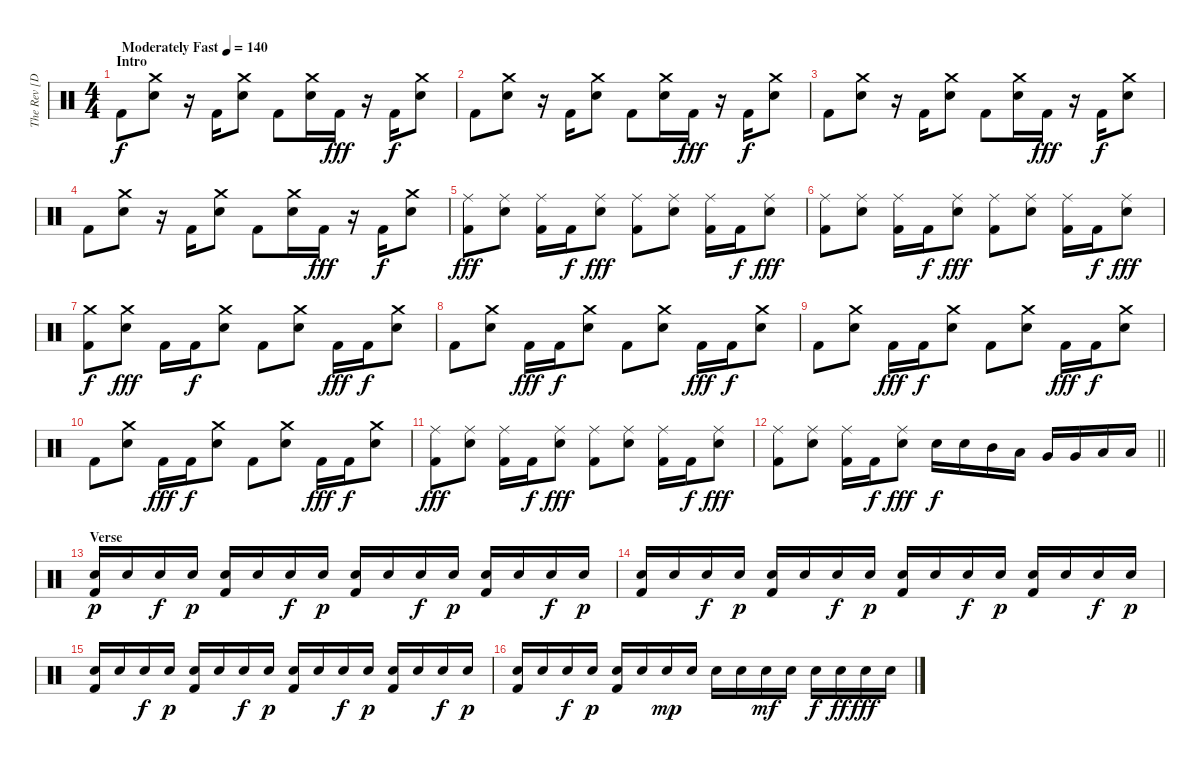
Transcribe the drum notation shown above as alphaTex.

\track ("The Rev [Drum]" "The Rev [D") {instrument percussion}
\staff {score}
\articulation defaults
\ts (4 4)
\section ("" "Intro")
\tempo (140 "Moderately Fast")
\clef neutral
\ks c "Kick (hit) 2".8{dy f}
("Crash medium (hit)" "Snare (hit) 2").8 r.16 "Kick (hit) 2".16 ("Crash medium (hit)" "Snare (hit) 2").8 "Kick (hit) 2".8 ("Crash medium (hit)" "Snare (hit) 2").16 "Kick (hit) 2".16{dy fff} r.16 "Kick (hit) 2".16{dy f} ("Crash medium (hit)" "Snare (hit) 2").8 |
"Kick (hit) 2".8 ("Crash medium (hit)" "Snare (hit) 2").8 r.16 "Kick (hit) 2".16 ("Crash medium (hit)" "Snare (hit) 2").8 "Kick (hit) 2".8 ("Crash medium (hit)" "Snare (hit) 2").16 "Kick (hit) 2".16{dy fff} r.16 "Kick (hit) 2".16{dy f} ("Crash medium (hit)" "Snare (hit) 2").8 |
"Kick (hit) 2".8 ("Crash medium (hit)" "Snare (hit) 2").8 r.16 "Kick (hit) 2".16 ("Crash medium (hit)" "Snare (hit) 2").8 "Kick (hit) 2".8 ("Crash medium (hit)" "Snare (hit) 2").16 "Kick (hit) 2".16{dy fff} r.16 "Kick (hit) 2".16{dy f} ("Crash medium (hit)" "Snare (hit) 2").8 |
"Kick (hit) 2".8 ("Crash medium (hit)" "Snare (hit) 2").8 r.16 "Kick (hit) 2".16 ("Crash medium (hit)" "Snare (hit) 2").8 "Kick (hit) 2".8 ("Crash medium (hit)" "Snare (hit) 2").16 "Kick (hit) 2".16{dy fff} r.16 "Kick (hit) 2".16{dy f} ("Crash medium (hit)" "Snare (hit) 2").8 |
("Ride (middle)" "Kick (hit) 2").8{dy fff} ("Ride (middle)" "Snare (hit) 2").8 ("Ride (middle)" "Kick (hit) 2").16 "Kick (hit) 2".16{dy f} ("Ride (middle)" "Snare (hit) 2").8{dy fff} ("Ride (middle)" "Kick (hit) 2").8 ("Ride (middle)" "Snare (hit) 2").8 ("Ride (middle)" "Kick (hit) 2").16 "Kick (hit) 2".16{dy f} ("Ride (middle)" "Snare (hit) 2").8{dy fff} |
("Ride (middle)" "Kick (hit) 2").8 ("Ride (middle)" "Snare (hit) 2").8 ("Ride (middle)" "Kick (hit) 2").16 "Kick (hit) 2".16{dy f} ("Ride (middle)" "Snare (hit) 2").8{dy fff} ("Ride (middle)" "Kick (hit) 2").8 ("Ride (middle)" "Snare (hit) 2").8 ("Ride (middle)" "Kick (hit) 2").16 "Kick (hit) 2".16{dy f} ("Ride (middle)" "Snare (hit) 2").8{dy fff} |
("Crash medium (hit)" "Kick (hit) 2").8{dy f} ("Crash medium (hit)" "Snare (hit) 2").8{dy fff} "Kick (hit) 2".16 "Kick (hit) 2".16{dy f} ("Crash medium (hit)" "Snare (hit) 2").8 "Kick (hit) 2".8 ("Crash medium (hit)" "Snare (hit) 2").8 "Kick (hit) 2".16{dy fff} "Kick (hit) 2".16{dy f} ("Crash medium (hit)" "Snare (hit) 2").8 |
"Kick (hit) 2".8 ("Crash medium (hit)" "Snare (hit) 2").8 "Kick (hit) 2".16{dy fff} "Kick (hit) 2".16{dy f} ("Crash medium (hit)" "Snare (hit) 2").8 "Kick (hit) 2".8 ("Crash medium (hit)" "Snare (hit) 2").8 "Kick (hit) 2".16{dy fff} "Kick (hit) 2".16{dy f} ("Crash medium (hit)" "Snare (hit) 2").8 |
"Kick (hit) 2".8 ("Crash medium (hit)" "Snare (hit) 2").8 "Kick (hit) 2".16{dy fff} "Kick (hit) 2".16{dy f} ("Crash medium (hit)" "Snare (hit) 2").8 "Kick (hit) 2".8 ("Crash medium (hit)" "Snare (hit) 2").8 "Kick (hit) 2".16{dy fff} "Kick (hit) 2".16{dy f} ("Crash medium (hit)" "Snare (hit) 2").8 |
"Kick (hit) 2".8 ("Crash medium (hit)" "Snare (hit) 2").8 "Kick (hit) 2".16{dy fff} "Kick (hit) 2".16{dy f} ("Crash medium (hit)" "Snare (hit) 2").8 "Kick (hit) 2".8 ("Crash medium (hit)" "Snare (hit) 2").8 "Kick (hit) 2".16{dy fff} "Kick (hit) 2".16{dy f} ("Crash medium (hit)" "Snare (hit) 2").8 |
("Ride (middle)" "Kick (hit) 2").8{dy fff} ("Ride (middle)" "Snare (hit) 2").8 ("Ride (middle)" "Kick (hit) 2").16 "Kick (hit) 2".16{dy f} ("Ride (middle)" "Snare (hit) 2").8{dy fff} ("Ride (middle)" "Kick (hit) 2").8 ("Ride (middle)" "Snare (hit) 2").8 ("Ride (middle)" "Kick (hit) 2").16 "Kick (hit) 2".16{dy f} ("Ride (middle)" "Snare (hit) 2").8{dy fff} |
\barLineRight lightlight
("Ride (middle)" "Kick (hit) 2").8 ("Ride (middle)" "Snare (hit) 2").8 ("Ride (middle)" "Kick (hit) 2").16 "Kick (hit) 2".16{dy f} ("Ride (middle)" "Snare (hit) 2").8{dy fff} "Snare (hit) 2".16{dy f} "Snare (hit) 2".16 "Mid Tom (hit)".16 "Low Tom (hit)".16 "Very Low Tom (hit)".16 "Very Low Tom (hit)".16 "Low Floor Tom (hit)".16 "Low Floor Tom (hit)".16 |
\section ("" "Verse")
("Snare (hit) 2" "Kick (hit) 2").16{dy p} "Snare (hit) 2".16 "Snare (hit) 2".16{dy f} "Snare (hit) 2".16{dy p} ("Snare (hit) 2" "Kick (hit) 2").16 "Snare (hit) 2".16 "Snare (hit) 2".16{dy f} "Snare (hit) 2".16{dy p} ("Snare (hit) 2" "Kick (hit) 2").16 "Snare (hit) 2".16 "Snare (hit) 2".16{dy f} "Snare (hit) 2".16{dy p} ("Snare (hit) 2" "Kick (hit) 2").16 "Snare (hit) 2".16 "Snare (hit) 2".16{dy f} "Snare (hit) 2".16{dy p} |
("Snare (hit) 2" "Kick (hit) 2").16 "Snare (hit) 2".16 "Snare (hit) 2".16{dy f} "Snare (hit) 2".16{dy p} ("Snare (hit) 2" "Kick (hit) 2").16 "Snare (hit) 2".16 "Snare (hit) 2".16{dy f} "Snare (hit) 2".16{dy p} ("Snare (hit) 2" "Kick (hit) 2").16 "Snare (hit) 2".16 "Snare (hit) 2".16{dy f} "Snare (hit) 2".16{dy p} ("Snare (hit) 2" "Kick (hit) 2").16 "Snare (hit) 2".16 "Snare (hit) 2".16{dy f} "Snare (hit) 2".16{dy p} |
("Snare (hit) 2" "Kick (hit) 2").16 "Snare (hit) 2".16 "Snare (hit) 2".16{dy f} "Snare (hit) 2".16{dy p} ("Snare (hit) 2" "Kick (hit) 2").16 "Snare (hit) 2".16 "Snare (hit) 2".16{dy f} "Snare (hit) 2".16{dy p} ("Snare (hit) 2" "Kick (hit) 2").16 "Snare (hit) 2".16 "Snare (hit) 2".16{dy f} "Snare (hit) 2".16{dy p} ("Snare (hit) 2" "Kick (hit) 2").16 "Snare (hit) 2".16 "Snare (hit) 2".16{dy f} "Snare (hit) 2".16{dy p} |
("Snare (hit) 2" "Kick (hit) 2").16 "Snare (hit) 2".16 "Snare (hit) 2".16{dy f} "Snare (hit) 2".16{dy p} ("Snare (hit) 2" "Kick (hit) 2").16 "Snare (hit) 2".16 "Snare (hit) 2".16{dy mp} "Snare (hit) 2".16 "Snare (hit) 2".16 "Snare (hit) 2".16 "Snare (hit) 2".16{dy mf} "Snare (hit) 2".16 "Snare (hit) 2".16{dy f} "Snare (hit) 2".16{dy ff} "Snare (hit) 2".16{dy fff} "Snare (hit) 2".16
